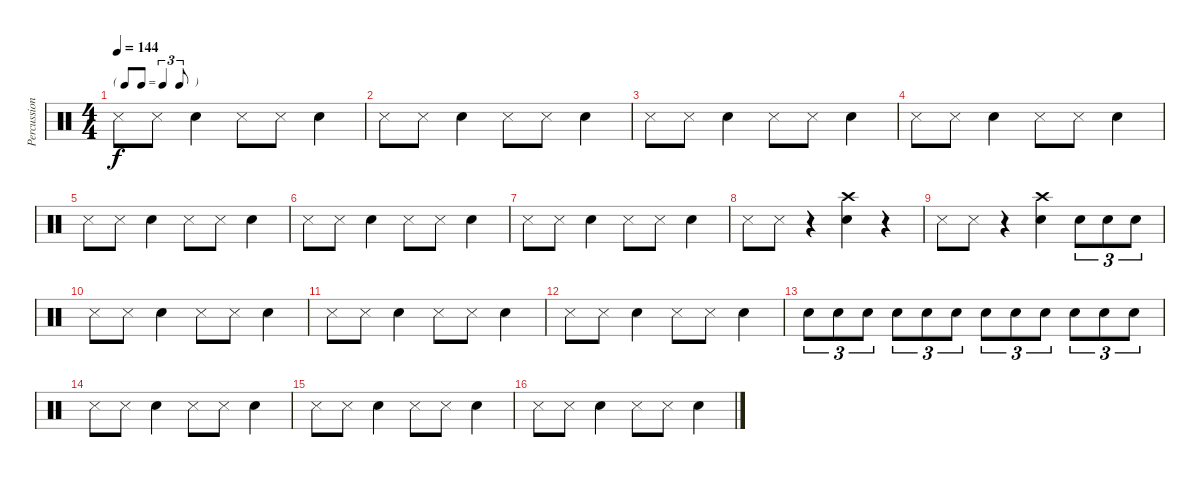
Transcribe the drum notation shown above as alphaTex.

\track ("Percussions" "Percussion") {instrument percussion}
\staff {score}
\articulation defaults
\ts (4 4)
\tf triplet8th
\tempo 144
\clef neutral
\ks c "Snare (side stick) 3".8{dy f} "Snare (side stick) 3".8 "Snare (hit) 2".4 "Snare (side stick) 3".8 "Snare (side stick) 3".8 "Snare (hit) 2".4
|
"Snare (side stick) 3".8 "Snare (side stick) 3".8 "Snare (hit) 2".4 "Snare (side stick) 3".8 "Snare (side stick) 3".8 "Snare (hit) 2".4 |
"Snare (side stick) 3".8 "Snare (side stick) 3".8 "Snare (hit) 2".4 "Snare (side stick) 3".8 "Snare (side stick) 3".8 "Snare (hit) 2".4 |
"Snare (side stick) 3".8 "Snare (side stick) 3".8 "Snare (hit) 2".4 "Snare (side stick) 3".8 "Snare (side stick) 3".8 "Snare (hit) 2".4 |
"Snare (side stick) 3".8 "Snare (side stick) 3".8 "Snare (hit) 2".4 "Snare (side stick) 3".8 "Snare (side stick) 3".8 "Snare (hit) 2".4 |
"Snare (side stick) 3".8 "Snare (side stick) 3".8 "Snare (hit) 2".4 "Snare (side stick) 3".8 "Snare (side stick) 3".8 "Snare (hit) 2".4 |
"Snare (side stick) 3".8 "Snare (side stick) 3".8 "Snare (hit) 2".4 "Snare (side stick) 3".8 "Snare (side stick) 3".8 "Snare (hit) 2".4 |
"Snare (side stick) 3".8 "Snare (side stick) 3".8 r.4 ("Snare (hit) 2" "Crash high (hit)").4 r.4 |
"Snare (side stick) 3".8 "Snare (side stick) 3".8 r.4 ("Snare (hit) 2" "Crash high (hit)").4 "Snare (hit) 2".8{tu (3 2)} "Snare (hit) 2".8{tu (3 2)} "Snare (hit) 2".8{tu (3 2)} |
"Snare (side stick) 3".8 "Snare (side stick) 3".8 "Snare (hit) 2".4 "Snare (side stick) 3".8 "Snare (side stick) 3".8 "Snare (hit) 2".4 |
"Snare (side stick) 3".8 "Snare (side stick) 3".8 "Snare (hit) 2".4 "Snare (side stick) 3".8 "Snare (side stick) 3".8 "Snare (hit) 2".4 |
"Snare (side stick) 3".8 "Snare (side stick) 3".8 "Snare (hit) 2".4 "Snare (side stick) 3".8 "Snare (side stick) 3".8 "Snare (hit) 2".4 |
"Snare (hit) 2".8{tu (3 2)} "Snare (hit) 2".8{tu (3 2)} "Snare (hit) 2".8{tu (3 2)} "Snare (hit) 2".8{tu (3 2)} "Snare (hit) 2".8{tu (3 2)} "Snare (hit) 2".8{tu (3 2)} "Snare (hit) 2".8{tu (3 2)} "Snare (hit) 2".8{tu (3 2)} "Snare (hit) 2".8{tu (3 2)} "Snare (hit) 2".8{tu (3 2)} "Snare (hit) 2".8{tu (3 2)} "Snare (hit) 2".8{tu (3 2)} |
"Snare (side stick) 3".8 "Snare (side stick) 3".8 "Snare (hit) 2".4 "Snare (side stick) 3".8 "Snare (side stick) 3".8 "Snare (hit) 2".4 |
"Snare (side stick) 3".8 "Snare (side stick) 3".8 "Snare (hit) 2".4 "Snare (side stick) 3".8 "Snare (side stick) 3".8 "Snare (hit) 2".4 |
"Snare (side stick) 3".8 "Snare (side stick) 3".8 "Snare (hit) 2".4 "Snare (side stick) 3".8 "Snare (side stick) 3".8 "Snare (hit) 2".4
